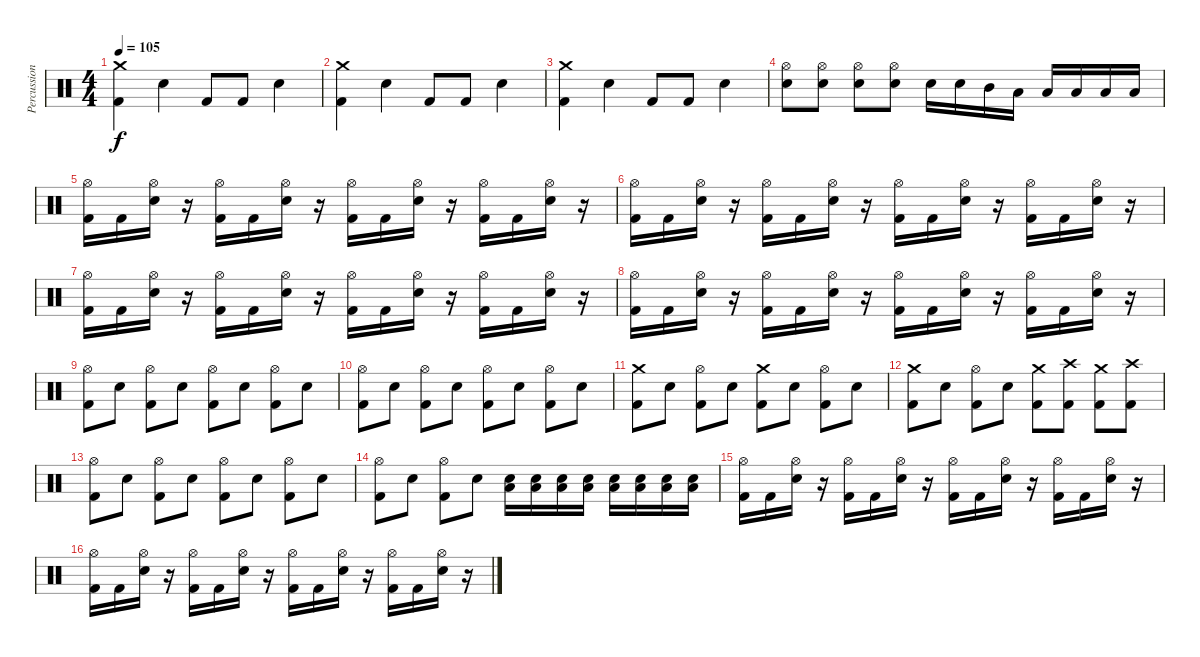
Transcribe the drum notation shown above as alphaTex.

\track ("Percussion" "Percussion") {instrument percussion}
\staff {score}
\articulation defaults
\ts (4 4)
\tempo 105
\clef neutral
\ks c
("Crash medium (hit)" "Kick (hit) 2").4{dy f} "Snare (hit) 2".4 "Kick (hit) 2".8 "Kick (hit) 2".8 "Snare (hit) 2".4 |
("Crash medium (hit)" "Kick (hit) 2").4 "Snare (hit) 2".4 "Kick (hit) 2".8 "Kick (hit) 2".8 "Snare (hit) 2".4 |
("Crash medium (hit)" "Kick (hit) 2").4 "Snare (hit) 2".4 "Kick (hit) 2".8 "Kick (hit) 2".8 "Snare (hit) 2".4 |
("Hi-Hat (open)" "Snare (hit) 2").8 ("Hi-Hat (open)" "Snare (hit) 2").8 ("Hi-Hat (open)" "Snare (hit) 2").8 ("Hi-Hat (open)" "Snare (hit) 2").8 "Snare (hit) 2".16 "Snare (hit) 2".16 "Mid Tom (hit)".16 "Low Tom (hit)".16 "Low Floor Tom (hit)".16 "Low Floor Tom (hit)".16 "Low Floor Tom (hit)".16 "Low Floor Tom (hit)".16 |
("Hi-Hat (open)" "Kick (hit) 2").16 "Kick (hit) 2".16 ("Hi-Hat (open)" "Snare (hit) 2").16 r.16 ("Hi-Hat (open)" "Kick (hit) 2").16 "Kick (hit) 2".16 ("Hi-Hat (open)" "Snare (hit) 2").16 r.16 ("Hi-Hat (open)" "Kick (hit) 2").16 "Kick (hit) 2".16 ("Hi-Hat (open)" "Snare (hit) 2").16 r.16 ("Hi-Hat (open)" "Kick (hit) 2").16 "Kick (hit) 2".16 ("Hi-Hat (open)" "Snare (hit) 2").16 r.16 |
("Hi-Hat (open)" "Kick (hit) 2").16 "Kick (hit) 2".16 ("Hi-Hat (open)" "Snare (hit) 2").16 r.16 ("Hi-Hat (open)" "Kick (hit) 2").16 "Kick (hit) 2".16 ("Hi-Hat (open)" "Snare (hit) 2").16 r.16 ("Hi-Hat (open)" "Kick (hit) 2").16 "Kick (hit) 2".16 ("Hi-Hat (open)" "Snare (hit) 2").16 r.16 ("Hi-Hat (open)" "Kick (hit) 2").16 "Kick (hit) 2".16 ("Hi-Hat (open)" "Snare (hit) 2").16 r.16 |
("Hi-Hat (open)" "Kick (hit) 2").16 "Kick (hit) 2".16 ("Hi-Hat (open)" "Snare (hit) 2").16 r.16 ("Hi-Hat (open)" "Kick (hit) 2").16 "Kick (hit) 2".16 ("Hi-Hat (open)" "Snare (hit) 2").16 r.16 ("Hi-Hat (open)" "Kick (hit) 2").16 "Kick (hit) 2".16 ("Hi-Hat (open)" "Snare (hit) 2").16 r.16 ("Hi-Hat (open)" "Kick (hit) 2").16 "Kick (hit) 2".16 ("Hi-Hat (open)" "Snare (hit) 2").16 r.16 |
("Hi-Hat (open)" "Kick (hit) 2").16 "Kick (hit) 2".16 ("Hi-Hat (open)" "Snare (hit) 2").16 r.16 ("Hi-Hat (open)" "Kick (hit) 2").16 "Kick (hit) 2".16 ("Hi-Hat (open)" "Snare (hit) 2").16 r.16 ("Hi-Hat (open)" "Kick (hit) 2").16 "Kick (hit) 2".16 ("Hi-Hat (open)" "Snare (hit) 2").16 r.16 ("Hi-Hat (open)" "Kick (hit) 2").16 "Kick (hit) 2".16 ("Hi-Hat (open)" "Snare (hit) 2").16 r.16 |
("Hi-Hat (open)" "Kick (hit) 2").8 "Snare (hit) 2".8 ("Hi-Hat (open)" "Kick (hit) 2").8 "Snare (hit) 2".8 ("Hi-Hat (open)" "Kick (hit) 2").8 "Snare (hit) 2".8 ("Hi-Hat (open)" "Kick (hit) 2").8 "Snare (hit) 2".8 |
("Hi-Hat (open)" "Kick (hit) 2").8 "Snare (hit) 2".8 ("Hi-Hat (open)" "Kick (hit) 2").8 "Snare (hit) 2".8 ("Hi-Hat (open)" "Kick (hit) 2").8 "Snare (hit) 2".8 ("Hi-Hat (open)" "Kick (hit) 2").8 "Snare (hit) 2".8 |
("Crash medium (hit)" "Kick (hit) 2").8 "Snare (hit) 2".8 ("Hi-Hat (open)" "Kick (hit) 2").8 "Snare (hit) 2".8 ("Crash medium (hit)" "Kick (hit) 2").8 "Snare (hit) 2".8 ("Hi-Hat (open)" "Kick (hit) 2").8 "Snare (hit) 2".8 |
("Crash medium (hit)" "Kick (hit) 2").8 "Snare (hit) 2".8 ("Hi-Hat (open)" "Kick (hit) 2").8 "Snare (hit) 2".8 ("Crash medium (hit)" "Kick (hit) 2").8 ("Crash high (hit)" "Kick (hit) 2").8 ("Crash medium (hit)" "Kick (hit) 2").8 ("Crash high (hit)" "Kick (hit) 2").8 |
("Hi-Hat (open)" "Kick (hit) 2").8 "Snare (hit) 2".8 ("Hi-Hat (open)" "Kick (hit) 2").8 "Snare (hit) 2".8 ("Hi-Hat (open)" "Kick (hit) 2").8 "Snare (hit) 2".8 ("Hi-Hat (open)" "Kick (hit) 2").8 "Snare (hit) 2".8 |
("Hi-Hat (open)" "Kick (hit) 2").8 "Snare (hit) 2".8 ("Hi-Hat (open)" "Kick (hit) 2").8 "Snare (hit) 2".8 ("Low Floor Tom (hit)" "Snare (hit) 2").16 ("Low Floor Tom (hit)" "Snare (hit) 2").16 ("Low Floor Tom (hit)" "Snare (hit) 2").16 ("Low Floor Tom (hit)" "Snare (hit) 2").16 ("Low Floor Tom (hit)" "Snare (hit) 2").16 ("Low Floor Tom (hit)" "Snare (hit) 2").16 ("Low Floor Tom (hit)" "Snare (hit) 2").16 ("Low Floor Tom (hit)" "Snare (hit) 2").16 |
("Hi-Hat (open)" "Kick (hit) 2").16 "Kick (hit) 2".16 ("Hi-Hat (open)" "Snare (hit) 2").16 r.16 ("Hi-Hat (open)" "Kick (hit) 2").16 "Kick (hit) 2".16 ("Hi-Hat (open)" "Snare (hit) 2").16 r.16 ("Hi-Hat (open)" "Kick (hit) 2").16 "Kick (hit) 2".16 ("Hi-Hat (open)" "Snare (hit) 2").16 r.16 ("Hi-Hat (open)" "Kick (hit) 2").16 "Kick (hit) 2".16 ("Hi-Hat (open)" "Snare (hit) 2").16 r.16 |
("Hi-Hat (open)" "Kick (hit) 2").16 "Kick (hit) 2".16 ("Hi-Hat (open)" "Snare (hit) 2").16 r.16 ("Hi-Hat (open)" "Kick (hit) 2").16 "Kick (hit) 2".16 ("Hi-Hat (open)" "Snare (hit) 2").16 r.16 ("Hi-Hat (open)" "Kick (hit) 2").16 "Kick (hit) 2".16 ("Hi-Hat (open)" "Snare (hit) 2").16 r.16 ("Hi-Hat (open)" "Kick (hit) 2").16 "Kick (hit) 2".16 ("Hi-Hat (open)" "Snare (hit) 2").16 r.16
